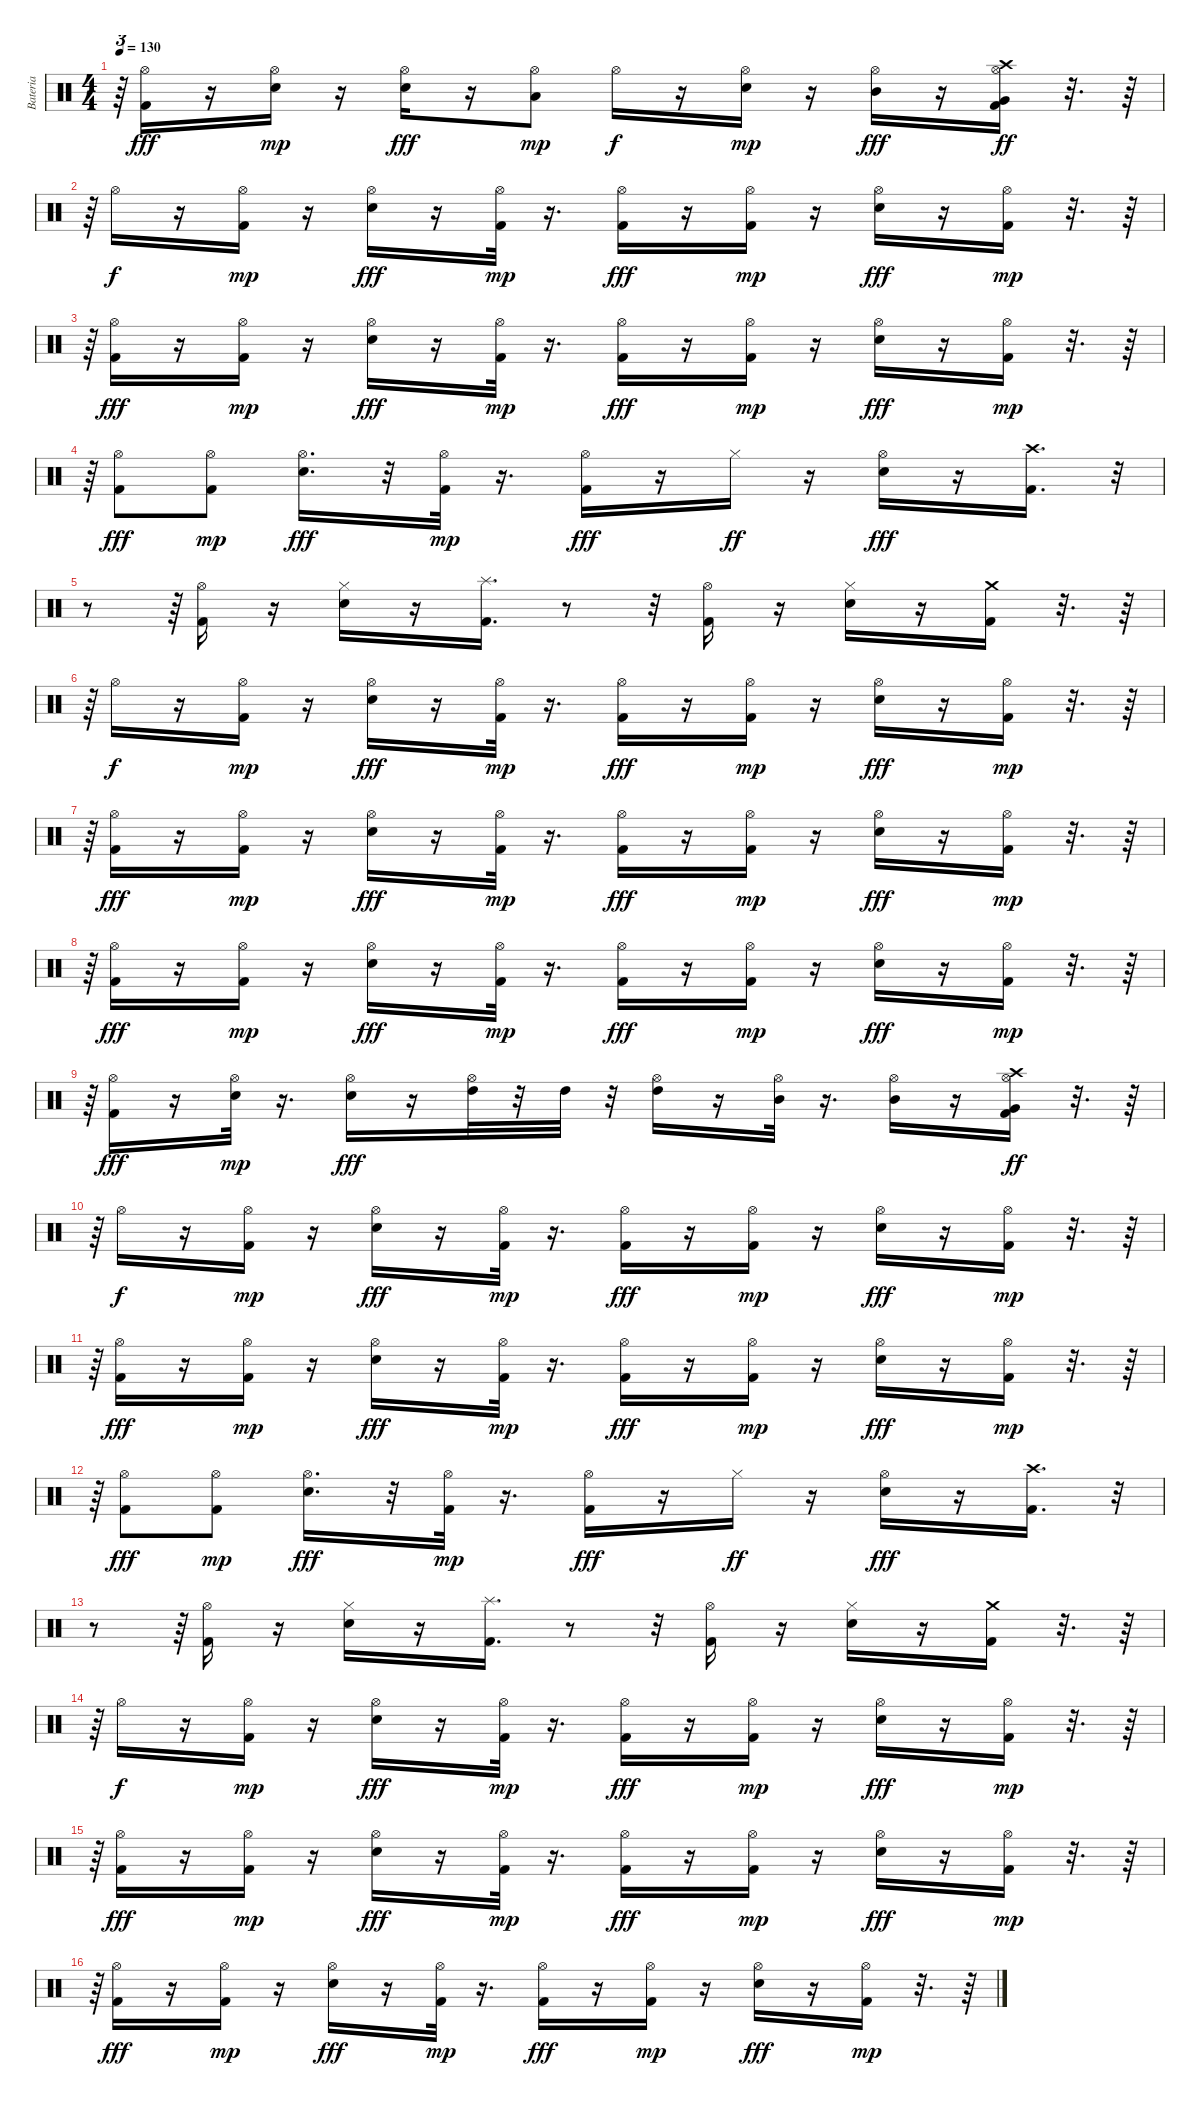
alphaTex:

\track ("Bateria" "Bateria") {instrument percussion}
\staff {score}
\articulation defaults
\ts (4 4)
\tempo 130
\clef neutral
\ks c
r.64{tu (3 2) dy mp} ("Kick (hit) 2" "Hi-Hat (open)").16{dy fff} r.16 ("Electric Snare (hit)" "Hi-Hat (open)").16{dy mp} r.16 ("Electric Snare (hit)" "Hi-Hat (open)").16{dy fff} r.16 ("Low Tom (hit)" "Hi-Hat (open)").8{dy mp} "Hi-Hat (open)".16{dy f} r.16 ("Electric Snare (hit)" "Hi-Hat (open)").16{dy mp} r.16 ("Hi-Hat (open)" "Mid Tom (hit)").16{dy fff} r.16 ("Kick (hit) 2" "Very Low Tom (hit)" "Hi-Hat (open)" "Crash high (hit)").16{dy ff} r.32{d} r.64 |
r.64{tu (3 2)} "Hi-Hat (open)".16{dy f} r.16 ("Kick (hit) 2" "Hi-Hat (open)").16{dy mp} r.16 ("Electric Snare (hit)" "Hi-Hat (open)").16{dy fff} r.16 ("Kick (hit) 2" "Hi-Hat (open)").32{dy mp} r.16{d} ("Kick (hit) 2" "Hi-Hat (open)").16{dy fff} r.16 ("Kick (hit) 2" "Hi-Hat (open)").16{dy mp} r.16 ("Electric Snare (hit)" "Hi-Hat (open)").16{dy fff} r.16 ("Kick (hit) 2" "Hi-Hat (open)").16{dy mp} r.32{d} r.64 |
r.64{tu (3 2)} ("Kick (hit) 2" "Hi-Hat (open)").16{dy fff} r.16 ("Kick (hit) 2" "Hi-Hat (open)").16{dy mp} r.16 ("Electric Snare (hit)" "Hi-Hat (open)").16{dy fff} r.16 ("Kick (hit) 2" "Hi-Hat (open)").32{dy mp} r.16{d} ("Kick (hit) 2" "Hi-Hat (open)").16{dy fff} r.16 ("Kick (hit) 2" "Hi-Hat (open)").16{dy mp} r.16 ("Electric Snare (hit)" "Hi-Hat (open)").16{dy fff} r.16 ("Kick (hit) 2" "Hi-Hat (open)").16{dy mp} r.32{d} r.64 |
r.64{tu (3 2)} ("Kick (hit) 2" "Hi-Hat (open)").8{dy fff} ("Kick (hit) 2" "Hi-Hat (open)").8{dy mp} ("Electric Snare (hit)" "Hi-Hat (open)").16{d dy fff} r.32 ("Kick (hit) 2" "Hi-Hat (open)").32{dy mp} r.16{d} ("Kick (hit) 2" "Hi-Hat (open)").16{dy fff} r.16 "Hi-Hat (closed)".16{dy ff} r.16 ("Electric Snare (hit)" "Hi-Hat (open)").16{dy fff} r.16 ("Kick (hit) 2" "Crash high (hit)").16{d} r.32{tu (3 2)} |
r.8 r.64{tu (3 2)} ("Kick (hit) 2" "Hi-Hat (open)").16 r.16 ("Electric Snare (hit)" "Hi-Hat (closed)").16 r.16 ("Kick (hit) 2" "Splash (hit)").16{d} r.8 r.32 ("Kick (hit) 2" "Hi-Hat (open)").16 r.16 ("Electric Snare (hit)" "Hi-Hat (closed)").16 r.16 ("Kick (hit) 2" "Crash medium (hit)").16 r.32{d} r.64 |
r.64{tu (3 2)} "Hi-Hat (open)".16{dy f} r.16 ("Kick (hit) 2" "Hi-Hat (open)").16{dy mp} r.16 ("Electric Snare (hit)" "Hi-Hat (open)").16{dy fff} r.16 ("Kick (hit) 2" "Hi-Hat (open)").32{dy mp} r.16{d} ("Kick (hit) 2" "Hi-Hat (open)").16{dy fff} r.16 ("Kick (hit) 2" "Hi-Hat (open)").16{dy mp} r.16 ("Electric Snare (hit)" "Hi-Hat (open)").16{dy fff} r.16 ("Kick (hit) 2" "Hi-Hat (open)").16{dy mp} r.32{d} r.64 |
r.64{tu (3 2)} ("Kick (hit) 2" "Hi-Hat (open)").16{dy fff} r.16 ("Kick (hit) 2" "Hi-Hat (open)").16{dy mp} r.16 ("Electric Snare (hit)" "Hi-Hat (open)").16{dy fff} r.16 ("Kick (hit) 2" "Hi-Hat (open)").32{dy mp} r.16{d} ("Kick (hit) 2" "Hi-Hat (open)").16{dy fff} r.16 ("Kick (hit) 2" "Hi-Hat (open)").16{dy mp} r.16 ("Electric Snare (hit)" "Hi-Hat (open)").16{dy fff} r.16 ("Kick (hit) 2" "Hi-Hat (open)").16{dy mp} r.32{d} r.64 |
r.64{tu (3 2)} ("Kick (hit) 2" "Hi-Hat (open)").16{dy fff} r.16 ("Kick (hit) 2" "Hi-Hat (open)").16{dy mp} r.16 ("Electric Snare (hit)" "Hi-Hat (open)").16{dy fff} r.16 ("Kick (hit) 2" "Hi-Hat (open)").32{dy mp} r.16{d} ("Kick (hit) 2" "Hi-Hat (open)").16{dy fff} r.16 ("Kick (hit) 2" "Hi-Hat (open)").16{dy mp} r.16 ("Electric Snare (hit)" "Hi-Hat (open)").16{dy fff} r.16 ("Kick (hit) 2" "Hi-Hat (open)").16{dy mp} r.32{d} r.64 |
r.64{tu (3 2)} ("Kick (hit) 2" "Hi-Hat (open)").16{dy fff} r.16 ("Electric Snare (hit)" "Hi-Hat (open)").32{dy mp} r.16{d} ("Electric Snare (hit)" "Hi-Hat (open)").16{dy fff} r.16 ("Hi-Hat (open)" "High Tom (hit)").32 r.32 "High Tom (hit)".32 r.32 ("Hi-Hat (open)" "High Tom (hit)").16 r.16 ("Hi-Hat (open)" "Mid Tom (hit)").32 r.16{d} ("Hi-Hat (open)" "Mid Tom (hit)").16 r.16 ("Kick (hit) 2" "Very Low Tom (hit)" "Hi-Hat (open)" "Crash high (hit)").16{dy ff} r.32{d} r.64 |
r.64{tu (3 2)} "Hi-Hat (open)".16{dy f} r.16 ("Kick (hit) 2" "Hi-Hat (open)").16{dy mp} r.16 ("Electric Snare (hit)" "Hi-Hat (open)").16{dy fff} r.16 ("Kick (hit) 2" "Hi-Hat (open)").32{dy mp} r.16{d} ("Kick (hit) 2" "Hi-Hat (open)").16{dy fff} r.16 ("Kick (hit) 2" "Hi-Hat (open)").16{dy mp} r.16 ("Electric Snare (hit)" "Hi-Hat (open)").16{dy fff} r.16 ("Kick (hit) 2" "Hi-Hat (open)").16{dy mp} r.32{d} r.64 |
r.64{tu (3 2)} ("Kick (hit) 2" "Hi-Hat (open)").16{dy fff} r.16 ("Kick (hit) 2" "Hi-Hat (open)").16{dy mp} r.16 ("Electric Snare (hit)" "Hi-Hat (open)").16{dy fff} r.16 ("Kick (hit) 2" "Hi-Hat (open)").32{dy mp} r.16{d} ("Kick (hit) 2" "Hi-Hat (open)").16{dy fff} r.16 ("Kick (hit) 2" "Hi-Hat (open)").16{dy mp} r.16 ("Electric Snare (hit)" "Hi-Hat (open)").16{dy fff} r.16 ("Kick (hit) 2" "Hi-Hat (open)").16{dy mp} r.32{d} r.64 |
r.64{tu (3 2)} ("Kick (hit) 2" "Hi-Hat (open)").8{dy fff} ("Kick (hit) 2" "Hi-Hat (open)").8{dy mp} ("Electric Snare (hit)" "Hi-Hat (open)").16{d dy fff} r.32 ("Kick (hit) 2" "Hi-Hat (open)").32{dy mp} r.16{d} ("Kick (hit) 2" "Hi-Hat (open)").16{dy fff} r.16 "Hi-Hat (closed)".16{dy ff} r.16 ("Electric Snare (hit)" "Hi-Hat (open)").16{dy fff} r.16 ("Kick (hit) 2" "Crash high (hit)").16{d} r.32{tu (3 2)} |
r.8 r.64{tu (3 2)} ("Kick (hit) 2" "Hi-Hat (open)").16 r.16 ("Electric Snare (hit)" "Hi-Hat (closed)").16 r.16 ("Kick (hit) 2" "Splash (hit)").16{d} r.8 r.32 ("Kick (hit) 2" "Hi-Hat (open)").16 r.16 ("Electric Snare (hit)" "Hi-Hat (closed)").16 r.16 ("Kick (hit) 2" "Crash medium (hit)").16 r.32{d} r.64 |
r.64{tu (3 2)} "Hi-Hat (open)".16{dy f} r.16 ("Kick (hit) 2" "Hi-Hat (open)").16{dy mp} r.16 ("Electric Snare (hit)" "Hi-Hat (open)").16{dy fff} r.16 ("Kick (hit) 2" "Hi-Hat (open)").32{dy mp} r.16{d} ("Kick (hit) 2" "Hi-Hat (open)").16{dy fff} r.16 ("Kick (hit) 2" "Hi-Hat (open)").16{dy mp} r.16 ("Electric Snare (hit)" "Hi-Hat (open)").16{dy fff} r.16 ("Kick (hit) 2" "Hi-Hat (open)").16{dy mp} r.32{d} r.64 |
r.64{tu (3 2)} ("Kick (hit) 2" "Hi-Hat (open)").16{dy fff} r.16 ("Kick (hit) 2" "Hi-Hat (open)").16{dy mp} r.16 ("Electric Snare (hit)" "Hi-Hat (open)").16{dy fff} r.16 ("Kick (hit) 2" "Hi-Hat (open)").32{dy mp} r.16{d} ("Kick (hit) 2" "Hi-Hat (open)").16{dy fff} r.16 ("Kick (hit) 2" "Hi-Hat (open)").16{dy mp} r.16 ("Electric Snare (hit)" "Hi-Hat (open)").16{dy fff} r.16 ("Kick (hit) 2" "Hi-Hat (open)").16{dy mp} r.32{d} r.64 |
r.64{tu (3 2)} ("Kick (hit) 2" "Hi-Hat (open)").16{dy fff} r.16 ("Kick (hit) 2" "Hi-Hat (open)").16{dy mp} r.16 ("Electric Snare (hit)" "Hi-Hat (open)").16{dy fff} r.16 ("Kick (hit) 2" "Hi-Hat (open)").32{dy mp} r.16{d} ("Kick (hit) 2" "Hi-Hat (open)").16{dy fff} r.16 ("Kick (hit) 2" "Hi-Hat (open)").16{dy mp} r.16 ("Electric Snare (hit)" "Hi-Hat (open)").16{dy fff} r.16 ("Kick (hit) 2" "Hi-Hat (open)").16{dy mp} r.32{d} r.64
